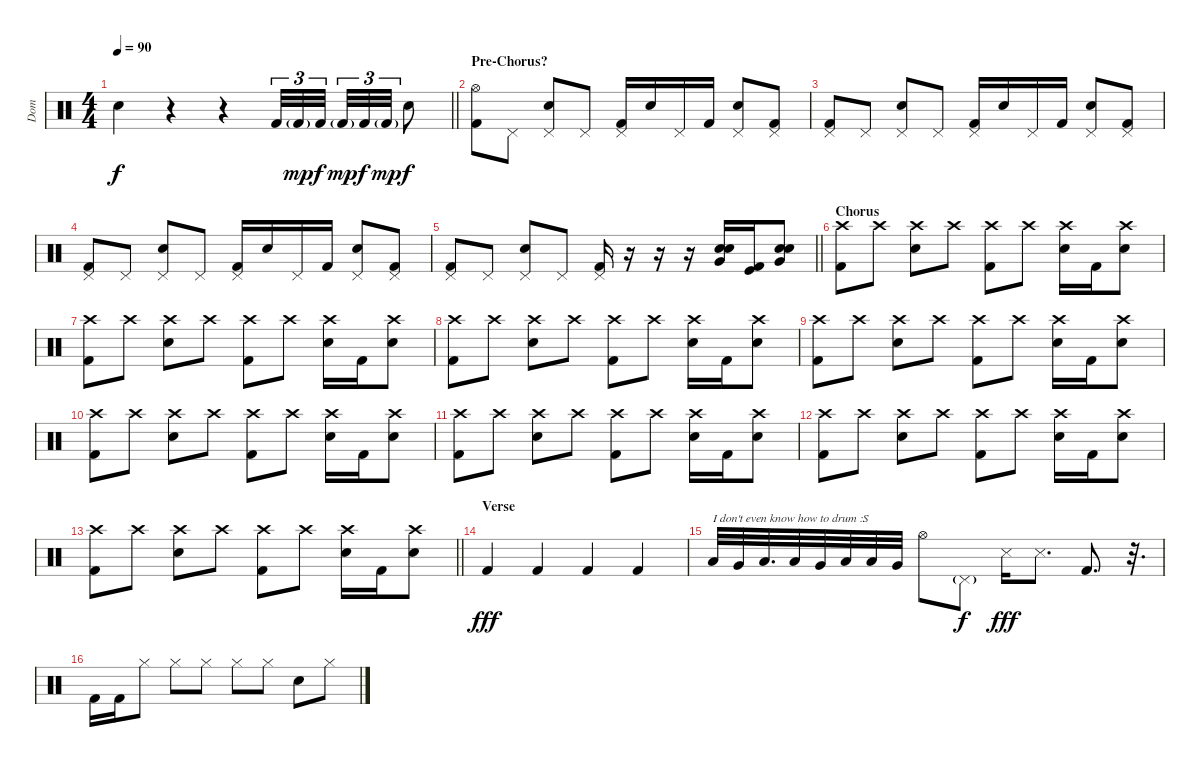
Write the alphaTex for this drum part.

\track ("Dom" "Dom") {instrument percussion}
\staff {score}
\articulation defaults
\ts (4 4)
\tempo 90
\clef neutral
\barLineRight lightlight
\ks c "Snare (hit) 2".4{dy f}
r.4 r.4 "Kick (hit) 2".32{tu (3 2)} "Kick (hit) 2"{g}.32{tu (3 2) dy mp} "Kick (hit) 2".32{tu (3 2) dy f beam splitsecondary} "Kick (hit) 2"{g}.32{tu (3 2) dy mp} "Kick (hit) 2".32{tu (3 2) dy f} "Kick (hit) 2"{g}.32{tu (3 2) dy mp} "Snare (hit) 2".8{dy f} |
\section ("" "Pre-Chorus?")
("Hi-Hat (open)" "Kick (hit) 2").8 "Pedal Hi-Hat (hit)".8 ("Pedal Hi-Hat (hit)" "Snare (hit) 2").8 "Pedal Hi-Hat (hit)".8 ("Pedal Hi-Hat (hit)" "Kick (hit) 2").16 "Snare (hit) 2".16 "Pedal Hi-Hat (hit)".16 "Kick (hit) 2".16 ("Pedal Hi-Hat (hit)" "Snare (hit) 2").8 ("Pedal Hi-Hat (hit)" "Kick (hit) 2").8 |
("Pedal Hi-Hat (hit)" "Kick (hit) 2").8 "Pedal Hi-Hat (hit)".8 ("Pedal Hi-Hat (hit)" "Snare (hit) 2").8 "Pedal Hi-Hat (hit)".8 ("Pedal Hi-Hat (hit)" "Kick (hit) 2").16 "Snare (hit) 2".16 "Pedal Hi-Hat (hit)".16 "Kick (hit) 2".16 ("Pedal Hi-Hat (hit)" "Snare (hit) 2").8 ("Pedal Hi-Hat (hit)" "Kick (hit) 2").8 |
("Pedal Hi-Hat (hit)" "Kick (hit) 2").8 "Pedal Hi-Hat (hit)".8 ("Pedal Hi-Hat (hit)" "Snare (hit) 2").8 "Pedal Hi-Hat (hit)".8 ("Pedal Hi-Hat (hit)" "Kick (hit) 2").16 "Snare (hit) 2".16 "Pedal Hi-Hat (hit)".16 "Kick (hit) 2".16 ("Pedal Hi-Hat (hit)" "Snare (hit) 2").8 ("Pedal Hi-Hat (hit)" "Kick (hit) 2").8 |
\barLineRight lightlight
("Pedal Hi-Hat (hit)" "Kick (hit) 2").8 "Pedal Hi-Hat (hit)".8 ("Pedal Hi-Hat (hit)" "Snare (hit) 2").8 "Pedal Hi-Hat (hit)".8 ("Pedal Hi-Hat (hit)" "Kick (hit) 2").16 r.16 r.16 r.16 ("Very Low Tom (hit)" "Electric Snare (hit)" "Snare (hit) 2").16 ("Kick (hit)" "Kick (hit) 2").16 ("Very Low Tom (hit)" "Electric Snare (hit)" "Snare (hit) 2").8 |
\section ("" "Chorus")
("Crash high (hit)" "Kick (hit) 2").8 "Crash high (hit)".8 ("Crash high (hit)" "Snare (hit) 2").8 "Crash high (hit)".8 ("Crash high (hit)" "Kick (hit) 2").8 "Crash high (hit)".8 ("Crash high (hit)" "Snare (hit) 2").16 "Kick (hit) 2".16 ("Crash high (hit)" "Snare (hit) 2").8 |
("Crash high (hit)" "Kick (hit) 2").8 "Crash high (hit)".8 ("Crash high (hit)" "Snare (hit) 2").8 "Crash high (hit)".8 ("Crash high (hit)" "Kick (hit) 2").8 "Crash high (hit)".8 ("Crash high (hit)" "Snare (hit) 2").16 "Kick (hit) 2".16 ("Crash high (hit)" "Snare (hit) 2").8 |
("Crash high (hit)" "Kick (hit) 2").8 "Crash high (hit)".8 ("Crash high (hit)" "Snare (hit) 2").8 "Crash high (hit)".8 ("Crash high (hit)" "Kick (hit) 2").8 "Crash high (hit)".8 ("Crash high (hit)" "Snare (hit) 2").16 "Kick (hit) 2".16 ("Crash high (hit)" "Snare (hit) 2").8 |
("Crash high (hit)" "Kick (hit) 2").8 "Crash high (hit)".8 ("Crash high (hit)" "Snare (hit) 2").8 "Crash high (hit)".8 ("Crash high (hit)" "Kick (hit) 2").8 "Crash high (hit)".8 ("Crash high (hit)" "Snare (hit) 2").16 "Kick (hit) 2".16 ("Crash high (hit)" "Snare (hit) 2").8 |
("Crash high (hit)" "Kick (hit) 2").8 "Crash high (hit)".8 ("Crash high (hit)" "Snare (hit) 2").8 "Crash high (hit)".8 ("Crash high (hit)" "Kick (hit) 2").8 "Crash high (hit)".8 ("Crash high (hit)" "Snare (hit) 2").16 "Kick (hit) 2".16 ("Crash high (hit)" "Snare (hit) 2").8 |
("Crash high (hit)" "Kick (hit) 2").8 "Crash high (hit)".8 ("Crash high (hit)" "Snare (hit) 2").8 "Crash high (hit)".8 ("Crash high (hit)" "Kick (hit) 2").8 "Crash high (hit)".8 ("Crash high (hit)" "Snare (hit) 2").16 "Kick (hit) 2".16 ("Crash high (hit)" "Snare (hit) 2").8 |
("Crash high (hit)" "Kick (hit) 2").8 "Crash high (hit)".8 ("Crash high (hit)" "Snare (hit) 2").8 "Crash high (hit)".8 ("Crash high (hit)" "Kick (hit) 2").8 "Crash high (hit)".8 ("Crash high (hit)" "Snare (hit) 2").16 "Kick (hit) 2".16 ("Crash high (hit)" "Snare (hit) 2").8 |
\barLineRight lightlight
("Crash high (hit)" "Kick (hit) 2").8 "Crash high (hit)".8 ("Crash high (hit)" "Snare (hit) 2").8 "Crash high (hit)".8 ("Crash high (hit)" "Kick (hit) 2").8 "Crash high (hit)".8 ("Crash high (hit)" "Snare (hit) 2").16 "Kick (hit) 2".16 ("Crash high (hit)" "Snare (hit) 2").8 |
\section ("" "Verse")
"Kick (hit) 2".4{dy fff} "Kick (hit) 2".4 "Kick (hit) 2".4 "Kick (hit) 2".4 |
"Low Tom (hit)".32{txt "I don't even know how to drum :S"} "Very Low Tom (hit)".32 "Low Floor Tom (hit)".32{d} "Low Tom (hit)".32 "Very Low Tom (hit)".32 "Low Floor Tom (hit)".32 "Low Tom (hit)".32 "Very Low Tom (hit)".32 "Hi-Hat (open)".8 "Pedal Hi-Hat (hit)"{g}.8{dy f} "Snare (side stick) 3".16{dy fff} "Snare (side stick) 3".8{d} "Kick (hit) 2".8{d} r.32{d} |
"Kick (hit) 2".16 "Kick (hit) 2".16 "Hi-Hat (closed)".8 "Hi-Hat (closed)".8 "Hi-Hat (closed)".8 "Hi-Hat (closed)".8 "Hi-Hat (closed)".8 "Snare (hit) 2".8 "Hi-Hat (closed)".8
